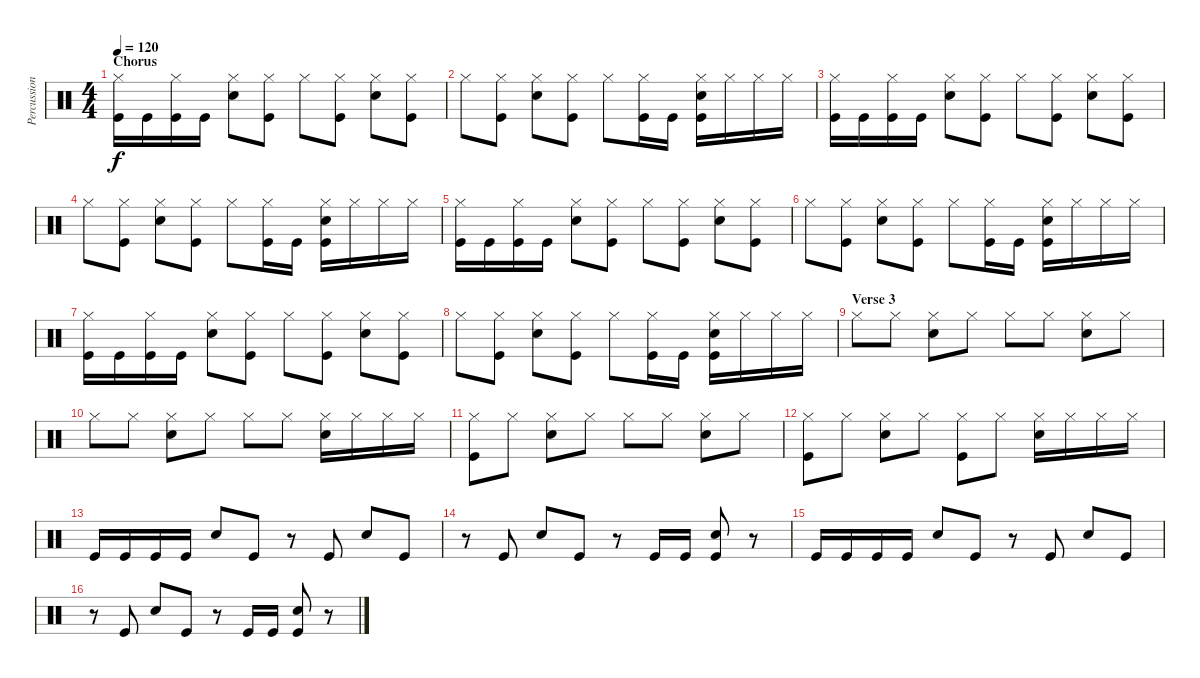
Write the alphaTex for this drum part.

\track ("Percussion" "Percussion") {instrument percussion}
\staff {score}
\articulation defaults
\ts (4 4)
\section ("" "Chorus")
\tempo 120
\clef neutral
\ks c
("Kick (hit)" "Hi-Hat (closed)").16{dy f} "Kick (hit)".16 ("Kick (hit)" "Hi-Hat (closed)").16 "Kick (hit)".16 ("Hi-Hat (closed)" "Hand Clap (hit)").8 ("Kick (hit)" "Hi-Hat (closed)").8 "Hi-Hat (closed)".8 ("Kick (hit)" "Hi-Hat (closed)").8 ("Hi-Hat (closed)" "Hand Clap (hit)").8 ("Kick (hit)" "Hi-Hat (closed)").8 |
"Hi-Hat (closed)".8 ("Kick (hit)" "Hi-Hat (closed)").8 ("Hi-Hat (closed)" "Hand Clap (hit)").8 ("Kick (hit)" "Hi-Hat (closed)").8 "Hi-Hat (closed)".8 ("Kick (hit)" "Hi-Hat (closed)").16 "Kick (hit)".16 ("Kick (hit)" "Hi-Hat (closed)" "Hand Clap (hit)").16 "Hi-Hat (closed)".16 "Hi-Hat (closed)".16 "Hi-Hat (closed)".16 |
("Kick (hit)" "Hi-Hat (closed)").16 "Kick (hit)".16 ("Kick (hit)" "Hi-Hat (closed)").16 "Kick (hit)".16 ("Hi-Hat (closed)" "Hand Clap (hit)").8 ("Kick (hit)" "Hi-Hat (closed)").8 "Hi-Hat (closed)".8 ("Kick (hit)" "Hi-Hat (closed)").8 ("Hi-Hat (closed)" "Hand Clap (hit)").8 ("Kick (hit)" "Hi-Hat (closed)").8 |
"Hi-Hat (closed)".8 ("Kick (hit)" "Hi-Hat (closed)").8 ("Hi-Hat (closed)" "Hand Clap (hit)").8 ("Kick (hit)" "Hi-Hat (closed)").8 "Hi-Hat (closed)".8 ("Kick (hit)" "Hi-Hat (closed)").16 "Kick (hit)".16 ("Kick (hit)" "Hi-Hat (closed)" "Hand Clap (hit)").16 "Hi-Hat (closed)".16 "Hi-Hat (closed)".16 "Hi-Hat (closed)".16 |
("Kick (hit)" "Hi-Hat (closed)").16 "Kick (hit)".16 ("Kick (hit)" "Hi-Hat (closed)").16 "Kick (hit)".16 ("Hi-Hat (closed)" "Hand Clap (hit)").8 ("Kick (hit)" "Hi-Hat (closed)").8 "Hi-Hat (closed)".8 ("Kick (hit)" "Hi-Hat (closed)").8 ("Hi-Hat (closed)" "Hand Clap (hit)").8 ("Kick (hit)" "Hi-Hat (closed)").8 |
"Hi-Hat (closed)".8 ("Kick (hit)" "Hi-Hat (closed)").8 ("Hi-Hat (closed)" "Hand Clap (hit)").8 ("Kick (hit)" "Hi-Hat (closed)").8 "Hi-Hat (closed)".8 ("Kick (hit)" "Hi-Hat (closed)").16 "Kick (hit)".16 ("Kick (hit)" "Hi-Hat (closed)" "Hand Clap (hit)").16 "Hi-Hat (closed)".16 "Hi-Hat (closed)".16 "Hi-Hat (closed)".16 |
("Kick (hit)" "Hi-Hat (closed)").16 "Kick (hit)".16 ("Kick (hit)" "Hi-Hat (closed)").16 "Kick (hit)".16 ("Hi-Hat (closed)" "Hand Clap (hit)").8 ("Kick (hit)" "Hi-Hat (closed)").8 "Hi-Hat (closed)".8 ("Kick (hit)" "Hi-Hat (closed)").8 ("Hi-Hat (closed)" "Hand Clap (hit)").8 ("Kick (hit)" "Hi-Hat (closed)").8 |
"Hi-Hat (closed)".8 ("Kick (hit)" "Hi-Hat (closed)").8 ("Hi-Hat (closed)" "Hand Clap (hit)").8 ("Kick (hit)" "Hi-Hat (closed)").8 "Hi-Hat (closed)".8 ("Kick (hit)" "Hi-Hat (closed)").16 "Kick (hit)".16 ("Kick (hit)" "Hi-Hat (closed)" "Hand Clap (hit)").16 "Hi-Hat (closed)".16 "Hi-Hat (closed)".16 "Hi-Hat (closed)".16 |
\section ("" "Verse 3")
"Hi-Hat (closed)".8 "Hi-Hat (closed)".8 ("Hi-Hat (closed)" "Hand Clap (hit)").8 "Hi-Hat (closed)".8 "Hi-Hat (closed)".8 "Hi-Hat (closed)".8 ("Hi-Hat (closed)" "Hand Clap (hit)").8 "Hi-Hat (closed)".8 |
"Hi-Hat (closed)".8 "Hi-Hat (closed)".8 ("Hi-Hat (closed)" "Hand Clap (hit)").8 "Hi-Hat (closed)".8 "Hi-Hat (closed)".8 "Hi-Hat (closed)".8 ("Hi-Hat (closed)" "Hand Clap (hit)").16 "Hi-Hat (closed)".16 "Hi-Hat (closed)".16 "Hi-Hat (closed)".16 |
("Kick (hit)" "Hi-Hat (closed)").8 "Hi-Hat (closed)".8 ("Hi-Hat (closed)" "Hand Clap (hit)").8 "Hi-Hat (closed)".8 "Hi-Hat (closed)".8 "Hi-Hat (closed)".8 ("Hi-Hat (closed)" "Hand Clap (hit)").8 "Hi-Hat (closed)".8 |
("Kick (hit)" "Hi-Hat (closed)").8 "Hi-Hat (closed)".8 ("Hi-Hat (closed)" "Hand Clap (hit)").8 "Hi-Hat (closed)".8 ("Kick (hit)" "Hi-Hat (closed)").8 "Hi-Hat (closed)".8 ("Hi-Hat (closed)" "Hand Clap (hit)").16 "Hi-Hat (closed)".16 "Hi-Hat (closed)".16 "Hi-Hat (closed)".16 |
"Kick (hit)".16 "Kick (hit)".16 "Kick (hit)".16 "Kick (hit)".16 "Hand Clap (hit)".8 "Kick (hit)".8 r.8 "Kick (hit)".8 "Hand Clap (hit)".8 "Kick (hit)".8 |
r.8 "Kick (hit)".8 "Hand Clap (hit)".8 "Kick (hit)".8 r.8 "Kick (hit)".16 "Kick (hit)".16 ("Kick (hit)" "Hand Clap (hit)").8 r.8 |
"Kick (hit)".16 "Kick (hit)".16 "Kick (hit)".16 "Kick (hit)".16 "Hand Clap (hit)".8 "Kick (hit)".8 r.8 "Kick (hit)".8 "Hand Clap (hit)".8 "Kick (hit)".8 |
r.8 "Kick (hit)".8 "Hand Clap (hit)".8 "Kick (hit)".8 r.8 "Kick (hit)".16 "Kick (hit)".16 ("Kick (hit)" "Hand Clap (hit)").8 r.8
